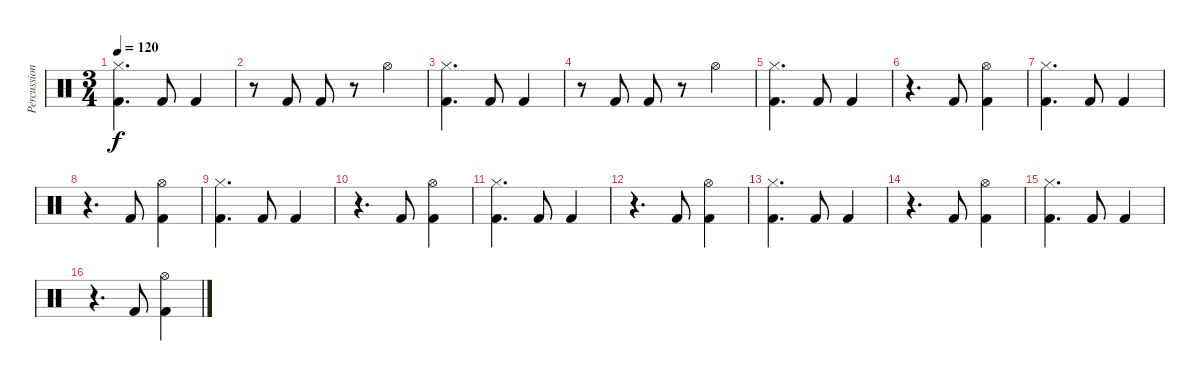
\track ("Percussion" "Percussion") {instrument percussion}
\staff {score}
\articulation defaults
\ts (3 4)
\tempo 120
\clef neutral
\ks c
("Kick (hit) 2" "Hi-Hat (closed)").4{d dy f} "Kick (hit) 2".8 "Kick (hit) 2".4 |
r.8 "Kick (hit) 2".8 "Kick (hit) 2".8 r.8 "Hi-Hat (open)".4 |
("Kick (hit) 2" "Hi-Hat (closed)").4{d} "Kick (hit) 2".8 "Kick (hit) 2".4 |
r.8 "Kick (hit) 2".8 "Kick (hit) 2".8 r.8 "Hi-Hat (open)".4 |
("Kick (hit) 2" "Hi-Hat (closed)").4{d} "Kick (hit) 2".8 "Kick (hit) 2".4 |
r.4{d} "Kick (hit) 2".8 ("Kick (hit) 2" "Hi-Hat (open)").4 |
("Kick (hit) 2" "Hi-Hat (closed)").4{d} "Kick (hit) 2".8 "Kick (hit) 2".4 |
r.4{d} "Kick (hit) 2".8 ("Kick (hit) 2" "Hi-Hat (open)").4 |
("Kick (hit) 2" "Hi-Hat (closed)").4{d} "Kick (hit) 2".8 "Kick (hit) 2".4 |
r.4{d} "Kick (hit) 2".8 ("Kick (hit) 2" "Hi-Hat (open)").4 |
("Kick (hit) 2" "Hi-Hat (closed)").4{d} "Kick (hit) 2".8 "Kick (hit) 2".4 |
r.4{d} "Kick (hit) 2".8 ("Kick (hit) 2" "Hi-Hat (open)").4 |
("Kick (hit) 2" "Hi-Hat (closed)").4{d} "Kick (hit) 2".8 "Kick (hit) 2".4 |
r.4{d} "Kick (hit) 2".8 ("Kick (hit) 2" "Hi-Hat (open)").4 |
("Kick (hit) 2" "Hi-Hat (closed)").4{d} "Kick (hit) 2".8 "Kick (hit) 2".4 |
r.4{d} "Kick (hit) 2".8 ("Kick (hit) 2" "Hi-Hat (open)").4
